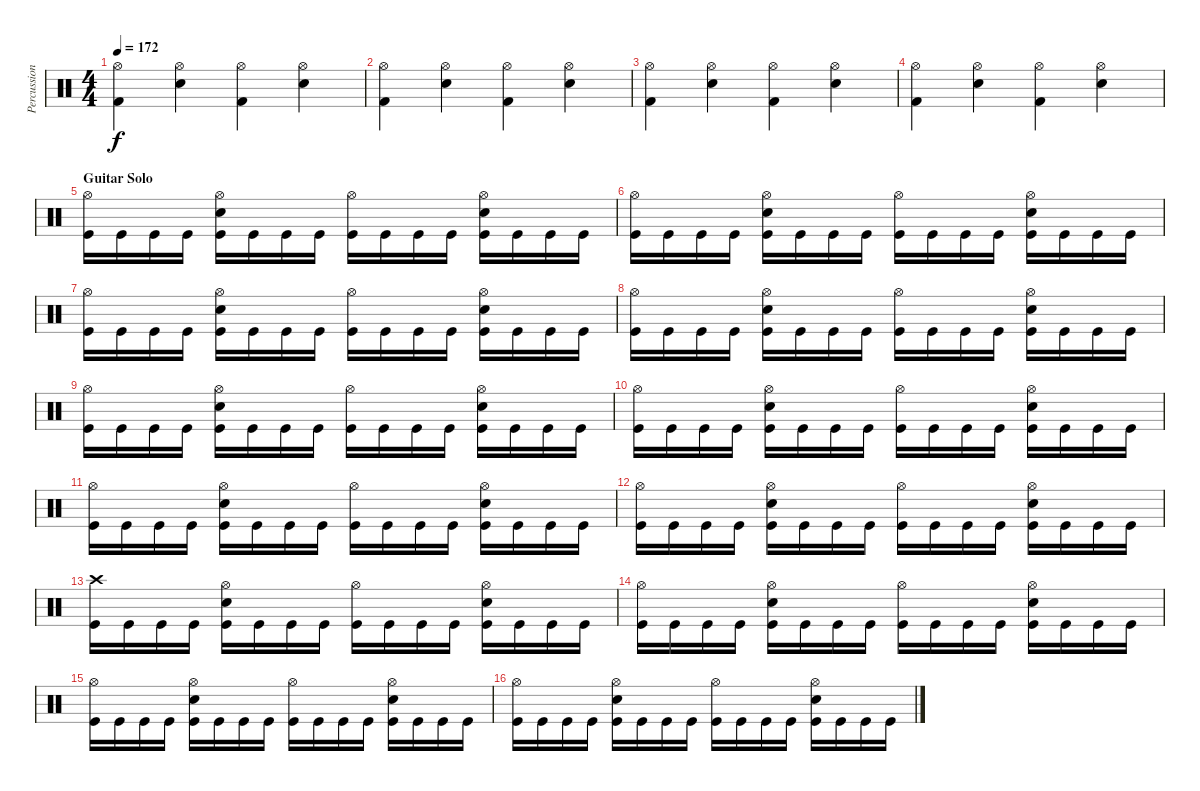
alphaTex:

\track ("Percussion" "Percussion") {instrument percussion}
\staff {score}
\articulation defaults
\ts (4 4)
\tempo 172
\clef neutral
\ks c
("Hi-Hat (open)" "Kick (hit) 2").4{dy f} ("Hi-Hat (open)" "Electric Snare (hit)").4 ("Hi-Hat (open)" "Kick (hit) 2").4 ("Hi-Hat (open)" "Electric Snare (hit)").4 |
("Hi-Hat (open)" "Kick (hit) 2").4 ("Hi-Hat (open)" "Electric Snare (hit)").4 ("Hi-Hat (open)" "Kick (hit) 2").4 ("Hi-Hat (open)" "Electric Snare (hit)").4 |
("Hi-Hat (open)" "Kick (hit) 2").4 ("Hi-Hat (open)" "Electric Snare (hit)").4 ("Hi-Hat (open)" "Kick (hit) 2").4 ("Hi-Hat (open)" "Electric Snare (hit)").4 |
("Hi-Hat (open)" "Kick (hit) 2").4 ("Hi-Hat (open)" "Electric Snare (hit)").4 ("Hi-Hat (open)" "Kick (hit) 2").4 ("Hi-Hat (open)" "Electric Snare (hit)").4 |
\section ("" "Guitar Solo")
("Hi-Hat (open)" "Kick (hit)").16 "Kick (hit)".16 "Kick (hit)".16 "Kick (hit)".16 ("Hi-Hat (open)" "Electric Snare (hit)" "Kick (hit)").16 "Kick (hit)".16 "Kick (hit)".16 "Kick (hit)".16 ("Hi-Hat (open)" "Kick (hit)").16 "Kick (hit)".16 "Kick (hit)".16 "Kick (hit)".16 ("Hi-Hat (open)" "Electric Snare (hit)" "Kick (hit)").16 "Kick (hit)".16 "Kick (hit)".16 "Kick (hit)".16 |
("Hi-Hat (open)" "Kick (hit)").16 "Kick (hit)".16 "Kick (hit)".16 "Kick (hit)".16 ("Hi-Hat (open)" "Electric Snare (hit)" "Kick (hit)").16 "Kick (hit)".16 "Kick (hit)".16 "Kick (hit)".16 ("Hi-Hat (open)" "Kick (hit)").16 "Kick (hit)".16 "Kick (hit)".16 "Kick (hit)".16 ("Hi-Hat (open)" "Electric Snare (hit)" "Kick (hit)").16 "Kick (hit)".16 "Kick (hit)".16 "Kick (hit)".16 |
("Hi-Hat (open)" "Kick (hit)").16 "Kick (hit)".16 "Kick (hit)".16 "Kick (hit)".16 ("Hi-Hat (open)" "Electric Snare (hit)" "Kick (hit)").16 "Kick (hit)".16 "Kick (hit)".16 "Kick (hit)".16 ("Hi-Hat (open)" "Kick (hit)").16 "Kick (hit)".16 "Kick (hit)".16 "Kick (hit)".16 ("Hi-Hat (open)" "Electric Snare (hit)" "Kick (hit)").16 "Kick (hit)".16 "Kick (hit)".16 "Kick (hit)".16 |
("Hi-Hat (open)" "Kick (hit)").16 "Kick (hit)".16 "Kick (hit)".16 "Kick (hit)".16 ("Hi-Hat (open)" "Electric Snare (hit)" "Kick (hit)").16 "Kick (hit)".16 "Kick (hit)".16 "Kick (hit)".16 ("Hi-Hat (open)" "Kick (hit)").16 "Kick (hit)".16 "Kick (hit)".16 "Kick (hit)".16 ("Hi-Hat (open)" "Electric Snare (hit)" "Kick (hit)").16 "Kick (hit)".16 "Kick (hit)".16 "Kick (hit)".16 |
("Hi-Hat (open)" "Kick (hit)").16 "Kick (hit)".16 "Kick (hit)".16 "Kick (hit)".16 ("Hi-Hat (open)" "Electric Snare (hit)" "Kick (hit)").16 "Kick (hit)".16 "Kick (hit)".16 "Kick (hit)".16 ("Hi-Hat (open)" "Kick (hit)").16 "Kick (hit)".16 "Kick (hit)".16 "Kick (hit)".16 ("Hi-Hat (open)" "Electric Snare (hit)" "Kick (hit)").16 "Kick (hit)".16 "Kick (hit)".16 "Kick (hit)".16 |
("Hi-Hat (open)" "Kick (hit)").16 "Kick (hit)".16 "Kick (hit)".16 "Kick (hit)".16 ("Hi-Hat (open)" "Electric Snare (hit)" "Kick (hit)").16 "Kick (hit)".16 "Kick (hit)".16 "Kick (hit)".16 ("Hi-Hat (open)" "Kick (hit)").16 "Kick (hit)".16 "Kick (hit)".16 "Kick (hit)".16 ("Hi-Hat (open)" "Electric Snare (hit)" "Kick (hit)").16 "Kick (hit)".16 "Kick (hit)".16 "Kick (hit)".16 |
("Hi-Hat (open)" "Kick (hit)").16 "Kick (hit)".16 "Kick (hit)".16 "Kick (hit)".16 ("Hi-Hat (open)" "Electric Snare (hit)" "Kick (hit)").16 "Kick (hit)".16 "Kick (hit)".16 "Kick (hit)".16 ("Hi-Hat (open)" "Kick (hit)").16 "Kick (hit)".16 "Kick (hit)".16 "Kick (hit)".16 ("Hi-Hat (open)" "Electric Snare (hit)" "Kick (hit)").16 "Kick (hit)".16 "Kick (hit)".16 "Kick (hit)".16 |
("Hi-Hat (open)" "Kick (hit)").16 "Kick (hit)".16 "Kick (hit)".16 "Kick (hit)".16 ("Hi-Hat (open)" "Electric Snare (hit)" "Kick (hit)").16 "Kick (hit)".16 "Kick (hit)".16 "Kick (hit)".16 ("Hi-Hat (open)" "Kick (hit)").16 "Kick (hit)".16 "Kick (hit)".16 "Kick (hit)".16 ("Hi-Hat (open)" "Electric Snare (hit)" "Kick (hit)").16 "Kick (hit)".16 "Kick (hit)".16 "Kick (hit)".16 |
("Crash high (hit)" "Kick (hit)").16 "Kick (hit)".16 "Kick (hit)".16 "Kick (hit)".16 ("Hi-Hat (open)" "Electric Snare (hit)" "Kick (hit)").16 "Kick (hit)".16 "Kick (hit)".16 "Kick (hit)".16 ("Hi-Hat (open)" "Kick (hit)").16 "Kick (hit)".16 "Kick (hit)".16 "Kick (hit)".16 ("Hi-Hat (open)" "Electric Snare (hit)" "Kick (hit)").16 "Kick (hit)".16 "Kick (hit)".16 "Kick (hit)".16 |
("Hi-Hat (open)" "Kick (hit)").16 "Kick (hit)".16 "Kick (hit)".16 "Kick (hit)".16 ("Hi-Hat (open)" "Electric Snare (hit)" "Kick (hit)").16 "Kick (hit)".16 "Kick (hit)".16 "Kick (hit)".16 ("Hi-Hat (open)" "Kick (hit)").16 "Kick (hit)".16 "Kick (hit)".16 "Kick (hit)".16 ("Hi-Hat (open)" "Electric Snare (hit)" "Kick (hit)").16 "Kick (hit)".16 "Kick (hit)".16 "Kick (hit)".16 |
("Hi-Hat (open)" "Kick (hit)").16 "Kick (hit)".16 "Kick (hit)".16 "Kick (hit)".16 ("Hi-Hat (open)" "Electric Snare (hit)" "Kick (hit)").16 "Kick (hit)".16 "Kick (hit)".16 "Kick (hit)".16 ("Hi-Hat (open)" "Kick (hit)").16 "Kick (hit)".16 "Kick (hit)".16 "Kick (hit)".16 ("Hi-Hat (open)" "Electric Snare (hit)" "Kick (hit)").16 "Kick (hit)".16 "Kick (hit)".16 "Kick (hit)".16 |
("Hi-Hat (open)" "Kick (hit)").16 "Kick (hit)".16 "Kick (hit)".16 "Kick (hit)".16 ("Hi-Hat (open)" "Electric Snare (hit)" "Kick (hit)").16 "Kick (hit)".16 "Kick (hit)".16 "Kick (hit)".16 ("Hi-Hat (open)" "Kick (hit)").16 "Kick (hit)".16 "Kick (hit)".16 "Kick (hit)".16 ("Hi-Hat (open)" "Electric Snare (hit)" "Kick (hit)").16 "Kick (hit)".16 "Kick (hit)".16 "Kick (hit)".16
